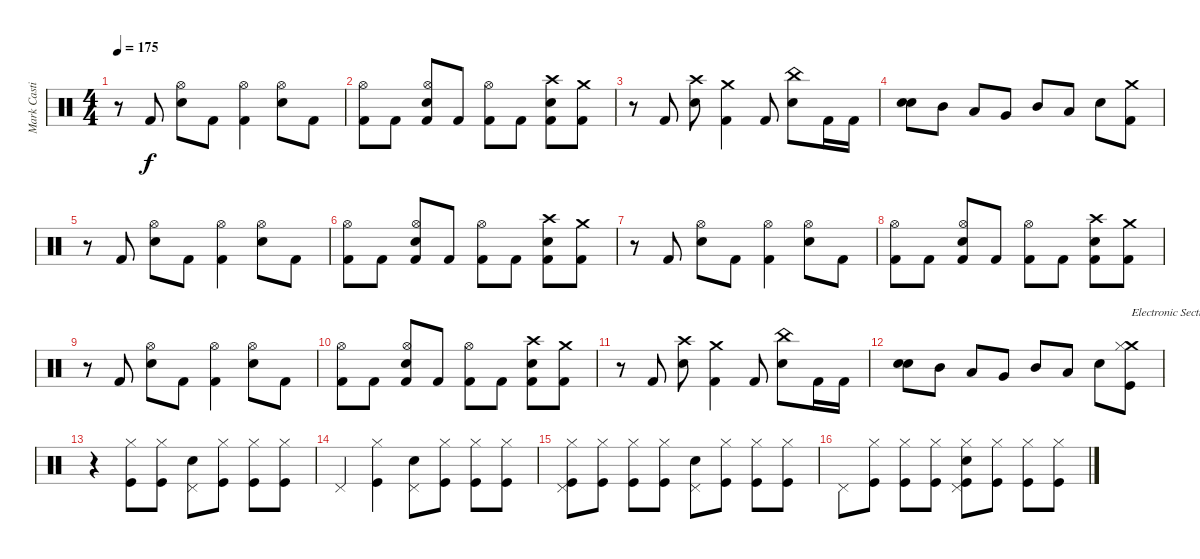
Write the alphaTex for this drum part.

\track ("Mark Castillo" "Mark Casti") {instrument percussion}
\staff {score}
\articulation defaults
\ts (4 4)
\tempo 175
\clef neutral
\ks c
r.8{dy f} "Kick (hit) 2".8 ("Hi-Hat (open)" "Electric Snare (hit)").8 "Kick (hit) 2".8 ("Hi-Hat (open)" "Kick (hit) 2").4 ("Hi-Hat (open)" "Electric Snare (hit)").8 "Kick (hit) 2".8 |
("Hi-Hat (open)" "Kick (hit) 2").8 "Kick (hit) 2".8 ("Hi-Hat (open)" "Electric Snare (hit)" "Kick (hit) 2").8 "Kick (hit) 2".8 ("Hi-Hat (open)" "Kick (hit) 2").8 "Kick (hit) 2".8 ("Crash high (hit)" "Electric Snare (hit)" "Kick (hit) 2").8 ("Crash medium (hit)" "Kick (hit) 2").8 |
r.8 "Kick (hit) 2".8 ("Crash high (hit)" "Electric Snare (hit)").8 ("Crash medium (hit)" "Kick (hit) 2").4 "Kick (hit) 2".8 ("China (hit)" "Electric Snare (hit)").8 "Kick (hit) 2".16 "Kick (hit) 2".16 |
("Electric Snare (hit)" "Electric Snare (hit)").8{bd 120} "Mid Tom (hit)".8 "Low Tom (hit)".8 "Very Low Tom (hit)".8 "Mid Tom (hit)".8 "Low Tom (hit)".8 "Electric Snare (hit)".8 ("Crash medium (hit)" "Kick (hit) 2").8 |
r.8 "Kick (hit) 2".8 ("Hi-Hat (open)" "Electric Snare (hit)").8 "Kick (hit) 2".8 ("Hi-Hat (open)" "Kick (hit) 2").4 ("Hi-Hat (open)" "Electric Snare (hit)").8 "Kick (hit) 2".8 |
("Hi-Hat (open)" "Kick (hit) 2").8 "Kick (hit) 2".8 ("Hi-Hat (open)" "Electric Snare (hit)" "Kick (hit) 2").8 "Kick (hit) 2".8 ("Hi-Hat (open)" "Kick (hit) 2").8 "Kick (hit) 2".8 ("Crash high (hit)" "Electric Snare (hit)" "Kick (hit) 2").8 ("Crash medium (hit)" "Kick (hit) 2").8 |
r.8 "Kick (hit) 2".8 ("Hi-Hat (open)" "Electric Snare (hit)").8 "Kick (hit) 2".8 ("Hi-Hat (open)" "Kick (hit) 2").4 ("Hi-Hat (open)" "Electric Snare (hit)").8 "Kick (hit) 2".8 |
("Hi-Hat (open)" "Kick (hit) 2").8 "Kick (hit) 2".8 ("Hi-Hat (open)" "Electric Snare (hit)" "Kick (hit) 2").8 "Kick (hit) 2".8 ("Hi-Hat (open)" "Kick (hit) 2").8 "Kick (hit) 2".8 ("Crash high (hit)" "Electric Snare (hit)" "Kick (hit) 2").8 ("Crash medium (hit)" "Kick (hit) 2").8 |
r.8 "Kick (hit) 2".8 ("Hi-Hat (open)" "Electric Snare (hit)").8 "Kick (hit) 2".8 ("Hi-Hat (open)" "Kick (hit) 2").4 ("Hi-Hat (open)" "Electric Snare (hit)").8 "Kick (hit) 2".8 |
("Hi-Hat (open)" "Kick (hit) 2").8 "Kick (hit) 2".8 ("Hi-Hat (open)" "Electric Snare (hit)" "Kick (hit) 2").8 "Kick (hit) 2".8 ("Hi-Hat (open)" "Kick (hit) 2").8 "Kick (hit) 2".8 ("Crash high (hit)" "Electric Snare (hit)" "Kick (hit) 2").8 ("Crash medium (hit)" "Kick (hit) 2").8 |
r.8 "Kick (hit) 2".8 ("Crash high (hit)" "Electric Snare (hit)").8 ("Crash medium (hit)" "Kick (hit) 2").4 "Kick (hit) 2".8 ("China (hit)" "Electric Snare (hit)").8 "Kick (hit) 2".16 "Kick (hit) 2".16 |
("Electric Snare (hit)" "Electric Snare (hit)").8{bd 120} "Mid Tom (hit)".8 "Low Tom (hit)".8 "Very Low Tom (hit)".8 "Mid Tom (hit)".8 "Low Tom (hit)".8 "Electric Snare (hit)".8 ("Crash medium (hit)" "Hi-Hat (closed)" "Kick (hit)").8{txt "Electronic Section"} |
r.4 ("Hi-Hat (closed)" "Kick (hit)").8 ("Hi-Hat (closed)" "Kick (hit)").8 ("Pedal Hi-Hat (hit)" "Snare (hit) 2").8 ("Hi-Hat (closed)" "Kick (hit)").8 ("Hi-Hat (closed)" "Kick (hit)").8 ("Hi-Hat (closed)" "Kick (hit)").8 |
"Pedal Hi-Hat (hit)".4 ("Hi-Hat (closed)" "Kick (hit)").4 ("Pedal Hi-Hat (hit)" "Snare (hit) 2").8 ("Hi-Hat (closed)" "Kick (hit)").8 ("Hi-Hat (closed)" "Kick (hit)").8 ("Hi-Hat (closed)" "Kick (hit)").8 |
("Pedal Hi-Hat (hit)" "Hi-Hat (closed)" "Kick (hit)").8 ("Hi-Hat (closed)" "Kick (hit)").8 ("Hi-Hat (closed)" "Kick (hit)").8 ("Hi-Hat (closed)" "Kick (hit)").8 ("Pedal Hi-Hat (hit)" "Snare (hit) 2").8 ("Hi-Hat (closed)" "Kick (hit)").8 ("Hi-Hat (closed)" "Kick (hit)").8 ("Hi-Hat (closed)" "Kick (hit)").8 |
"Pedal Hi-Hat (hit)".8 ("Hi-Hat (closed)" "Kick (hit)").8 ("Hi-Hat (closed)" "Kick (hit)").8 ("Hi-Hat (closed)" "Kick (hit)").8 ("Pedal Hi-Hat (hit)" "Snare (hit) 2" "Hi-Hat (closed)" "Kick (hit)").8 ("Hi-Hat (closed)" "Kick (hit)").8 ("Hi-Hat (closed)" "Kick (hit)").8 ("Hi-Hat (closed)" "Kick (hit)").8
